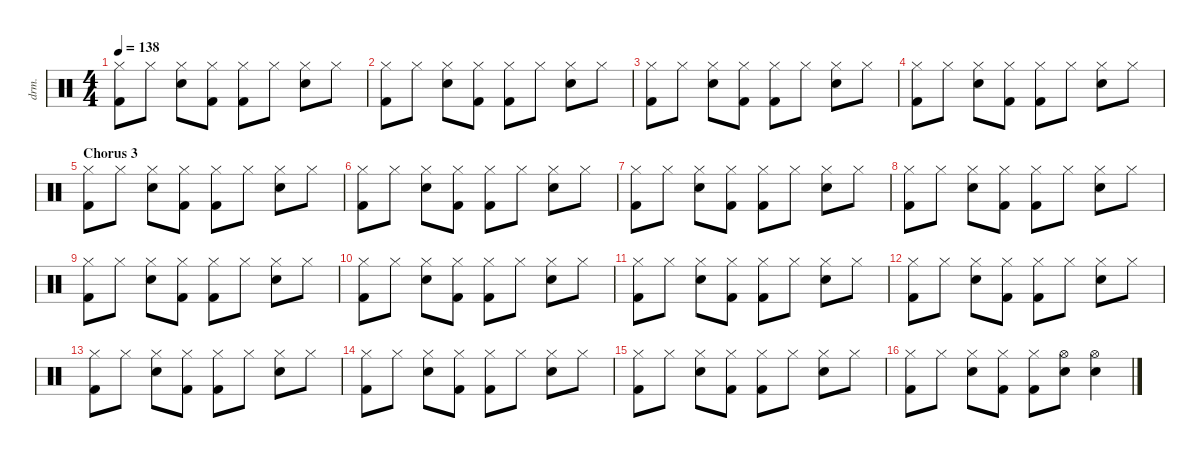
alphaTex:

\defaultSystemsLayout 4
\hideDynamics
\bracketExtendMode nobrackets
\otherSystemsTrackNameOrientation horizontal
\track ("Drums (Don Henley)" "drm.") {instrument percussion}
\staff {score}
\articulation defaults
\ts (4 4)
\tempo 138
\clef neutral
\ks c
("Hi-Hat (closed)" "Kick (hit) 2").8{dy f} "Hi-Hat (closed)".8 ("Hi-Hat (closed)" "Snare (hit) 2").8 ("Hi-Hat (closed)" "Kick (hit) 2").8 ("Hi-Hat (closed)" "Kick (hit) 2").8 "Hi-Hat (closed)".8 ("Hi-Hat (closed)" "Snare (hit) 2").8 "Hi-Hat (closed)".8 |
("Hi-Hat (closed)" "Kick (hit) 2").8 "Hi-Hat (closed)".8 ("Hi-Hat (closed)" "Snare (hit) 2").8 ("Hi-Hat (closed)" "Kick (hit) 2").8 ("Hi-Hat (closed)" "Kick (hit) 2").8 "Hi-Hat (closed)".8 ("Hi-Hat (closed)" "Snare (hit) 2").8 "Hi-Hat (closed)".8 |
("Hi-Hat (closed)" "Kick (hit) 2").8 "Hi-Hat (closed)".8 ("Hi-Hat (closed)" "Snare (hit) 2").8 ("Hi-Hat (closed)" "Kick (hit) 2").8 ("Hi-Hat (closed)" "Kick (hit) 2").8 "Hi-Hat (closed)".8 ("Hi-Hat (closed)" "Snare (hit) 2").8 "Hi-Hat (closed)".8 |
("Hi-Hat (closed)" "Kick (hit) 2").8 "Hi-Hat (closed)".8 ("Hi-Hat (closed)" "Snare (hit) 2").8 ("Hi-Hat (closed)" "Kick (hit) 2").8 ("Hi-Hat (closed)" "Kick (hit) 2").8 "Hi-Hat (closed)".8 ("Hi-Hat (closed)" "Snare (hit) 2").8 "Hi-Hat (closed)".8 |
\section ("" "Chorus 3")
("Hi-Hat (closed)" "Kick (hit) 2").8 "Hi-Hat (closed)".8 ("Hi-Hat (closed)" "Snare (hit) 2").8 ("Hi-Hat (closed)" "Kick (hit) 2").8 ("Hi-Hat (closed)" "Kick (hit) 2").8 "Hi-Hat (closed)".8 ("Hi-Hat (closed)" "Snare (hit) 2").8 "Hi-Hat (closed)".8 |
("Hi-Hat (closed)" "Kick (hit) 2").8 "Hi-Hat (closed)".8 ("Hi-Hat (closed)" "Snare (hit) 2").8 ("Hi-Hat (closed)" "Kick (hit) 2").8 ("Hi-Hat (closed)" "Kick (hit) 2").8 "Hi-Hat (closed)".8 ("Hi-Hat (closed)" "Snare (hit) 2").8 "Hi-Hat (closed)".8 |
("Hi-Hat (closed)" "Kick (hit) 2").8 "Hi-Hat (closed)".8 ("Hi-Hat (closed)" "Snare (hit) 2").8 ("Hi-Hat (closed)" "Kick (hit) 2").8 ("Hi-Hat (closed)" "Kick (hit) 2").8 "Hi-Hat (closed)".8 ("Hi-Hat (closed)" "Snare (hit) 2").8 "Hi-Hat (closed)".8 |
("Hi-Hat (closed)" "Kick (hit) 2").8 "Hi-Hat (closed)".8 ("Hi-Hat (closed)" "Snare (hit) 2").8 ("Hi-Hat (closed)" "Kick (hit) 2").8 ("Hi-Hat (closed)" "Kick (hit) 2").8 "Hi-Hat (closed)".8 ("Hi-Hat (closed)" "Snare (hit) 2").8 "Hi-Hat (closed)".8 |
("Hi-Hat (closed)" "Kick (hit) 2").8 "Hi-Hat (closed)".8 ("Hi-Hat (closed)" "Snare (hit) 2").8 ("Hi-Hat (closed)" "Kick (hit) 2").8 ("Hi-Hat (closed)" "Kick (hit) 2").8 "Hi-Hat (closed)".8 ("Hi-Hat (closed)" "Snare (hit) 2").8 "Hi-Hat (closed)".8 |
("Hi-Hat (closed)" "Kick (hit) 2").8 "Hi-Hat (closed)".8 ("Hi-Hat (closed)" "Snare (hit) 2").8 ("Hi-Hat (closed)" "Kick (hit) 2").8 ("Hi-Hat (closed)" "Kick (hit) 2").8 "Hi-Hat (closed)".8 ("Hi-Hat (closed)" "Snare (hit) 2").8 "Hi-Hat (closed)".8 |
("Hi-Hat (closed)" "Kick (hit) 2").8 "Hi-Hat (closed)".8 ("Hi-Hat (closed)" "Snare (hit) 2").8 ("Hi-Hat (closed)" "Kick (hit) 2").8 ("Hi-Hat (closed)" "Kick (hit) 2").8 "Hi-Hat (closed)".8 ("Hi-Hat (closed)" "Snare (hit) 2").8 "Hi-Hat (closed)".8 |
("Hi-Hat (closed)" "Kick (hit) 2").8 "Hi-Hat (closed)".8 ("Hi-Hat (closed)" "Snare (hit) 2").8 ("Hi-Hat (closed)" "Kick (hit) 2").8 ("Hi-Hat (closed)" "Kick (hit) 2").8 "Hi-Hat (closed)".8 ("Hi-Hat (closed)" "Snare (hit) 2").8 "Hi-Hat (closed)".8 |
("Hi-Hat (closed)" "Kick (hit) 2").8 "Hi-Hat (closed)".8 ("Hi-Hat (closed)" "Snare (hit) 2").8 ("Hi-Hat (closed)" "Kick (hit) 2").8 ("Hi-Hat (closed)" "Kick (hit) 2").8 "Hi-Hat (closed)".8 ("Hi-Hat (closed)" "Snare (hit) 2").8 "Hi-Hat (closed)".8 |
("Hi-Hat (closed)" "Kick (hit) 2").8 "Hi-Hat (closed)".8 ("Hi-Hat (closed)" "Snare (hit) 2").8 ("Hi-Hat (closed)" "Kick (hit) 2").8 ("Hi-Hat (closed)" "Kick (hit) 2").8 "Hi-Hat (closed)".8 ("Hi-Hat (closed)" "Snare (hit) 2").8 "Hi-Hat (closed)".8 |
("Hi-Hat (closed)" "Kick (hit) 2").8 "Hi-Hat (closed)".8 ("Hi-Hat (closed)" "Snare (hit) 2").8 ("Hi-Hat (closed)" "Kick (hit) 2").8 ("Hi-Hat (closed)" "Kick (hit) 2").8 "Hi-Hat (closed)".8 ("Hi-Hat (closed)" "Snare (hit) 2").8 "Hi-Hat (closed)".8 |
("Hi-Hat (closed)" "Kick (hit) 2").8 "Hi-Hat (closed)".8 ("Hi-Hat (closed)" "Snare (hit) 2").8 ("Hi-Hat (closed)" "Kick (hit) 2").8 ("Hi-Hat (closed)" "Kick (hit) 2").8 ("Hi-Hat (open)" "Snare (hit) 2").8 ("Hi-Hat (open)" "Snare (hit) 2").4
